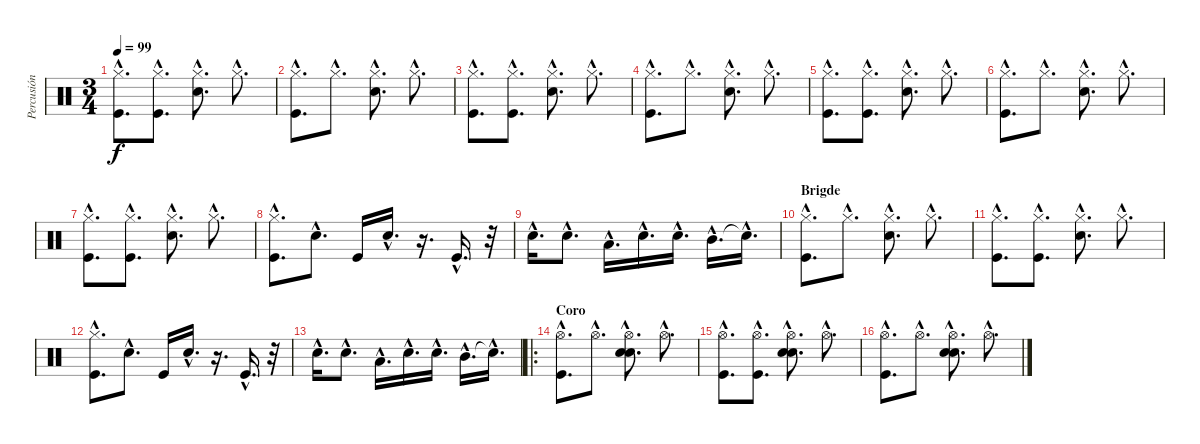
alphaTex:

\track ("Percusión" "Percusión") {instrument percussion}
\staff {score}
\articulation defaults
\ts (3 4)
\tempo 99
\clef neutral
\ks c
("Hi-Hat (closed)"{hac} "Kick (hit)"{hac}).8{d dy f} ("Hi-Hat (closed)"{hac} "Kick (hit)"{hac}).8{d} ("Hi-Hat (closed)"{hac} "Snare (hit) 2"{hac}).8{d} "Hi-Hat (closed)"{hac}.8{d} |
("Hi-Hat (closed)"{hac} "Kick (hit)"{hac}).8{d} "Hi-Hat (closed)"{hac}.8{d} ("Hi-Hat (closed)"{hac} "Snare (hit) 2"{hac}).8{d} "Hi-Hat (closed)"{hac}.8{d} |
("Hi-Hat (closed)"{hac} "Kick (hit)"{hac}).8{d} ("Hi-Hat (closed)"{hac} "Kick (hit)"{hac}).8{d} ("Hi-Hat (closed)"{hac} "Snare (hit) 2"{hac}).8{d} "Hi-Hat (closed)"{hac}.8{d} |
("Hi-Hat (closed)"{hac} "Kick (hit)"{hac}).8{d} "Hi-Hat (closed)"{hac}.8{d} ("Hi-Hat (closed)"{hac} "Snare (hit) 2"{hac}).8{d} "Hi-Hat (closed)"{hac}.8{d} |
("Hi-Hat (closed)"{hac} "Kick (hit)"{hac}).8{d} ("Hi-Hat (closed)"{hac} "Kick (hit)"{hac}).8{d} ("Hi-Hat (closed)"{hac} "Snare (hit) 2"{hac}).8{d} "Hi-Hat (closed)"{hac}.8{d} |
("Hi-Hat (closed)"{hac} "Kick (hit)"{hac}).8{d} "Hi-Hat (closed)"{hac}.8{d} ("Hi-Hat (closed)"{hac} "Snare (hit) 2"{hac}).8{d} "Hi-Hat (closed)"{hac}.8{d} |
("Hi-Hat (closed)"{hac} "Kick (hit)"{hac}).8{d} ("Hi-Hat (closed)"{hac} "Kick (hit)"{hac}).8{d} ("Hi-Hat (closed)"{hac} "Snare (hit) 2"{hac}).8{d} "Hi-Hat (closed)"{hac}.8{d} |
("Hi-Hat (closed)"{hac} "Kick (hit)"{hac}).8{d} "Snare (hit) 2"{hac}.8{d} "Kick (hit)".16 "Snare (hit) 2"{hac}.16{d} r.16{d} "Kick (hit)"{hac}.16{d} r.32 |
"Snare (hit) 2"{hac}.16{d} "Snare (hit) 2"{hac}.8{d} "Low Tom (hit)"{hac}.16{d} "Snare (hit) 2"{hac}.16{d} "Snare (hit) 2"{hac}.16{d} "Mid Tom (hit)"{hac}.16{d} "Snare (hit)"{hac t}.16{d} |
\section ("" "Brigde")
("Hi-Hat (closed)"{hac} "Kick (hit)"{hac}).8{d} "Hi-Hat (closed)"{hac}.8{d} ("Hi-Hat (closed)"{hac} "Snare (hit) 2"{hac}).8{d} "Hi-Hat (closed)"{hac}.8{d} |
("Hi-Hat (closed)"{hac} "Kick (hit)"{hac}).8{d} ("Hi-Hat (closed)"{hac} "Kick (hit)"{hac}).8{d} ("Hi-Hat (closed)"{hac} "Snare (hit) 2"{hac}).8{d} "Hi-Hat (closed)"{hac}.8{d} |
("Hi-Hat (closed)"{hac} "Kick (hit)"{hac}).8{d} "Snare (hit) 2"{hac}.8{d} "Kick (hit)".16 "Snare (hit) 2"{hac}.16{d} r.16{d} "Kick (hit)"{hac}.16{d} r.32 |
"Snare (hit) 2"{hac}.16{d} "Snare (hit) 2"{hac}.8{d} "Low Tom (hit)"{hac}.16{d} "Snare (hit) 2"{hac}.16{d} "Snare (hit) 2"{hac}.16{d} "Mid Tom (hit)"{hac}.16{d} "Snare (hit)"{hac t}.16{d} |
\ro
\section ("" "Coro")
("Hi-Hat (open)"{hac} "Kick (hit)"{hac}).8{d} "Hi-Hat (open)"{hac}.8{d} ("Hi-Hat (open)"{hac} "Electric Snare (hit)"{hac} "Snare (hit) 2"{hac}).8{d} "Hi-Hat (open)"{hac}.8{d} |
("Hi-Hat (open)"{hac} "Kick (hit)"{hac}).8{d} ("Hi-Hat (open)"{hac} "Kick (hit)"{hac}).8{d} ("Hi-Hat (open)"{hac} "Electric Snare (hit)"{hac} "Snare (hit) 2"{hac}).8{d} "Hi-Hat (open)"{hac}.8{d} |
("Hi-Hat (open)"{hac} "Kick (hit)"{hac}).8{d} "Hi-Hat (open)"{hac}.8{d} ("Hi-Hat (open)"{hac} "Electric Snare (hit)"{hac} "Snare (hit) 2"{hac}).8{d} "Hi-Hat (open)"{hac}.8{d}
